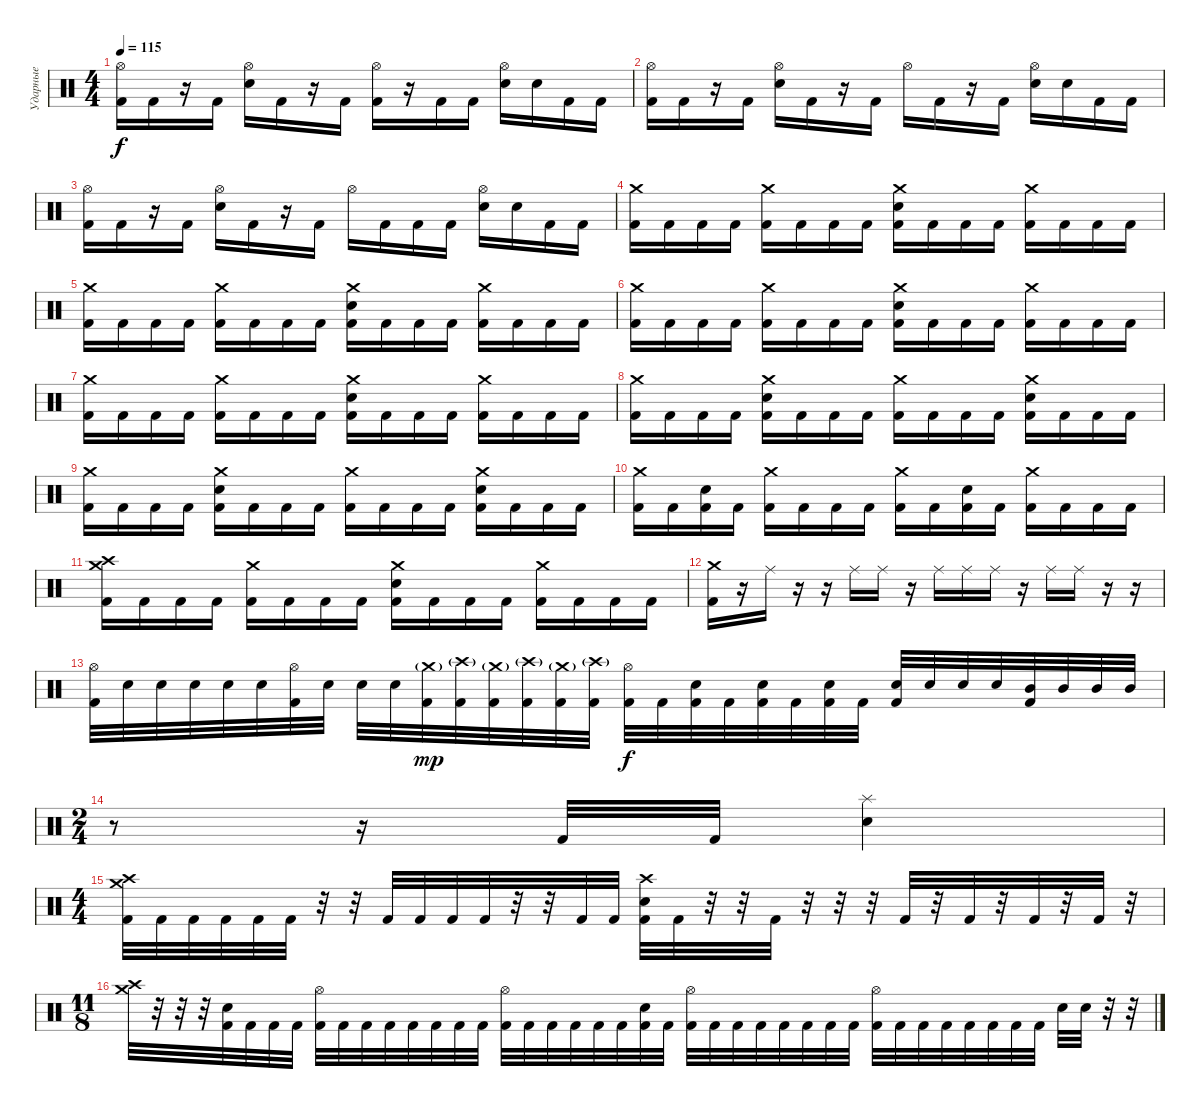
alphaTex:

\track ("Ударные" "Ударные") {instrument percussion}
\staff {score}
\articulation defaults
\ts (4 4)
\tempo 115
\clef neutral
\ks c
("Hi-Hat (open)" "Kick (hit) 2").16{dy f} "Kick (hit) 2".16 r.16 "Kick (hit) 2".16 ("Hi-Hat (open)" "Electric Snare (hit)").16 "Kick (hit) 2".16 r.16 "Kick (hit) 2".16 ("Hi-Hat (open)" "Kick (hit) 2").16 r.16 "Kick (hit) 2".16 "Kick (hit) 2".16 ("Hi-Hat (open)" "Electric Snare (hit)").16 "Electric Snare (hit)".16 "Kick (hit) 2".16 "Kick (hit) 2".16 |
("Hi-Hat (open)" "Kick (hit) 2").16 "Kick (hit) 2".16 r.16 "Kick (hit) 2".16 ("Hi-Hat (open)" "Electric Snare (hit)").16 "Kick (hit) 2".16 r.16 "Kick (hit) 2".16 "Hi-Hat (open)".16 "Kick (hit) 2".16 r.16 "Kick (hit) 2".16 ("Hi-Hat (open)" "Electric Snare (hit)").16 "Electric Snare (hit)".16 "Kick (hit) 2".16 "Kick (hit) 2".16 |
("Hi-Hat (open)" "Kick (hit) 2").16 "Kick (hit) 2".16 r.16 "Kick (hit) 2".16 ("Hi-Hat (open)" "Electric Snare (hit)").16 "Kick (hit) 2".16 r.16 "Kick (hit) 2".16 "Hi-Hat (open)".16 "Kick (hit) 2".16 "Kick (hit) 2".16 "Kick (hit) 2".16 ("Hi-Hat (open)" "Electric Snare (hit)").16 "Electric Snare (hit)".16 "Kick (hit) 2".16 "Kick (hit) 2".16 |
("Crash medium (hit)" "Kick (hit) 2").16 "Kick (hit) 2".16 "Kick (hit) 2".16 "Kick (hit) 2".16 ("Crash medium (hit)" "Kick (hit) 2").16 "Kick (hit) 2".16 "Kick (hit) 2".16 "Kick (hit) 2".16 ("Crash medium (hit)" "Electric Snare (hit)" "Kick (hit) 2").16 "Kick (hit) 2".16 "Kick (hit) 2".16 "Kick (hit) 2".16 ("Crash medium (hit)" "Kick (hit) 2").16 "Kick (hit) 2".16 "Kick (hit) 2".16 "Kick (hit) 2".16 |
("Crash medium (hit)" "Kick (hit) 2").16 "Kick (hit) 2".16 "Kick (hit) 2".16 "Kick (hit) 2".16 ("Crash medium (hit)" "Kick (hit) 2").16 "Kick (hit) 2".16 "Kick (hit) 2".16 "Kick (hit) 2".16 ("Crash medium (hit)" "Electric Snare (hit)" "Kick (hit) 2").16 "Kick (hit) 2".16 "Kick (hit) 2".16 "Kick (hit) 2".16 ("Crash medium (hit)" "Kick (hit) 2").16 "Kick (hit) 2".16 "Kick (hit) 2".16 "Kick (hit) 2".16 |
("Crash medium (hit)" "Kick (hit) 2").16 "Kick (hit) 2".16 "Kick (hit) 2".16 "Kick (hit) 2".16 ("Crash medium (hit)" "Kick (hit) 2").16 "Kick (hit) 2".16 "Kick (hit) 2".16 "Kick (hit) 2".16 ("Crash medium (hit)" "Electric Snare (hit)" "Kick (hit) 2").16 "Kick (hit) 2".16 "Kick (hit) 2".16 "Kick (hit) 2".16 ("Crash medium (hit)" "Kick (hit) 2").16 "Kick (hit) 2".16 "Kick (hit) 2".16 "Kick (hit) 2".16 |
("Crash medium (hit)" "Kick (hit) 2").16 "Kick (hit) 2".16 "Kick (hit) 2".16 "Kick (hit) 2".16 ("Crash medium (hit)" "Kick (hit) 2").16 "Kick (hit) 2".16 "Kick (hit) 2".16 "Kick (hit) 2".16 ("Crash medium (hit)" "Electric Snare (hit)" "Kick (hit) 2").16 "Kick (hit) 2".16 "Kick (hit) 2".16 "Kick (hit) 2".16 ("Crash medium (hit)" "Kick (hit) 2").16 "Kick (hit) 2".16 "Kick (hit) 2".16 "Kick (hit) 2".16 |
("Crash medium (hit)" "Kick (hit) 2").16 "Kick (hit) 2".16 "Kick (hit) 2".16 "Kick (hit) 2".16 ("Crash medium (hit)" "Electric Snare (hit)" "Kick (hit) 2").16 "Kick (hit) 2".16 "Kick (hit) 2".16 "Kick (hit) 2".16 ("Crash medium (hit)" "Kick (hit) 2").16 "Kick (hit) 2".16 "Kick (hit) 2".16 "Kick (hit) 2".16 ("Crash medium (hit)" "Electric Snare (hit)" "Kick (hit) 2").16 "Kick (hit) 2".16 "Kick (hit) 2".16 "Kick (hit) 2".16 |
("Crash medium (hit)" "Kick (hit) 2").16 "Kick (hit) 2".16 "Kick (hit) 2".16 "Kick (hit) 2".16 ("Crash medium (hit)" "Electric Snare (hit)" "Kick (hit) 2").16 "Kick (hit) 2".16 "Kick (hit) 2".16 "Kick (hit) 2".16 ("Crash medium (hit)" "Kick (hit) 2").16 "Kick (hit) 2".16 "Kick (hit) 2".16 "Kick (hit) 2".16 ("Crash medium (hit)" "Electric Snare (hit)" "Kick (hit) 2").16 "Kick (hit) 2".16 "Kick (hit) 2".16 "Kick (hit) 2".16 |
("Crash medium (hit)" "Kick (hit) 2").16 "Kick (hit) 2".16 ("Electric Snare (hit)" "Kick (hit) 2").16 "Kick (hit) 2".16 ("Crash medium (hit)" "Kick (hit) 2").16 "Kick (hit) 2".16 "Kick (hit) 2".16 "Kick (hit) 2".16 ("Crash medium (hit)" "Kick (hit) 2").16 "Kick (hit) 2".16 ("Electric Snare (hit)" "Kick (hit) 2").16 "Kick (hit) 2".16 ("Crash medium (hit)" "Kick (hit) 2").16 "Kick (hit) 2".16 "Kick (hit) 2".16 "Kick (hit) 2".16 |
("Crash medium (hit)" "Crash high (hit)" "Kick (hit) 2").16 "Kick (hit) 2".16 "Kick (hit) 2".16 "Kick (hit) 2".16 ("Crash medium (hit)" "Kick (hit) 2").16 "Kick (hit) 2".16 "Kick (hit) 2".16 "Kick (hit) 2".16 ("Crash medium (hit)" "Electric Snare (hit)" "Kick (hit) 2").16 "Kick (hit) 2".16 "Kick (hit) 2".16 "Kick (hit) 2".16 ("Crash medium (hit)" "Kick (hit) 2").16 "Kick (hit) 2".16 "Kick (hit) 2".16 "Kick (hit) 2".16 |
("Crash medium (hit)" "Kick (hit) 2").16 r.16 "Ride (middle)".16 r.16 r.16 "Ride (middle)".16 "Ride (middle)".16 r.16 "Ride (middle)".16 "Ride (middle)".16 "Ride (middle)".16 r.16 "Ride (middle)".16 "Ride (middle)".16 r.16 r.16 |
("Hi-Hat (open)" "Kick (hit) 2").32 "Electric Snare (hit)".32 "Electric Snare (hit)".32 "Electric Snare (hit)".32 "Electric Snare (hit)".32 "Electric Snare (hit)".32 ("Hi-Hat (open)" "Kick (hit) 2").32 "Electric Snare (hit)".32 "Electric Snare (hit)".32 "Electric Snare (hit)".32 ("Crash medium (hit)"{g} "Kick (hit) 2").32{dy mp} ("Crash high (hit)"{g} "Kick (hit) 2").32 ("Crash medium (hit)"{g} "Kick (hit) 2").32 ("Crash high (hit)"{g} "Kick (hit) 2").32 ("Crash medium (hit)"{g} "Kick (hit) 2").32 ("Crash high (hit)"{g} "Kick (hit) 2").32 ("Hi-Hat (open)" "Kick (hit) 2").32{dy f} "Kick (hit) 2".32 ("Electric Snare (hit)" "Kick (hit) 2").32 "Kick (hit) 2".32 ("Electric Snare (hit)" "Kick (hit) 2").32 "Kick (hit) 2".32 ("Electric Snare (hit)" "Kick (hit) 2").32 "Kick (hit) 2".32 ("Electric Snare (hit)" "Kick (hit) 2").32 "Electric Snare (hit)".32 "Electric Snare (hit)".32 "Electric Snare (hit)".32 ("Mid Tom (hit)" "Kick (hit) 2").32 "Mid Tom (hit)".32 "Mid Tom (hit)".32 "Mid Tom (hit)".32 |
\ts (2 4)
r.8 r.16 "Kick (hit) 2".32 "Kick (hit) 2".32 ("Splash (hit)" "Electric Snare (hit)").4 |
\ts (4 4)
("Crash high (hit)" "Crash medium (hit)" "Kick (hit) 2").32 "Kick (hit) 2".32 "Kick (hit) 2".32 "Kick (hit) 2".32 "Kick (hit) 2".32 "Kick (hit) 2".32 r.32 r.32 "Kick (hit) 2".32 "Kick (hit) 2".32 "Kick (hit) 2".32 "Kick (hit) 2".32 r.32 r.32 "Kick (hit) 2".32 "Kick (hit) 2".32 ("Crash high (hit)" "Electric Snare (hit)" "Kick (hit) 2").32 "Kick (hit) 2".32 r.32 r.32 "Kick (hit) 2".32 r.32 r.32 r.32 "Kick (hit) 2".32 r.32 "Kick (hit) 2".32 r.32 "Kick (hit) 2".32 r.32 "Kick (hit) 2".32 r.32 |
\ts (11 8)
("Crash medium (hit)" "Crash high (hit)").32 r.32 r.32 r.32 ("Electric Snare (hit)" "Kick (hit) 2").32 "Kick (hit) 2".32 "Kick (hit) 2".32 "Kick (hit) 2".32 ("Hi-Hat (open)" "Kick (hit) 2").32 "Kick (hit) 2".32 "Kick (hit) 2".32 "Kick (hit) 2".32 "Kick (hit) 2".32 "Kick (hit) 2".32 "Kick (hit) 2".32 "Kick (hit) 2".32 ("Hi-Hat (open)" "Kick (hit) 2").32 "Kick (hit) 2".32 "Kick (hit) 2".32 "Kick (hit) 2".32 "Kick (hit) 2".32 "Kick (hit) 2".32 ("Electric Snare (hit)" "Kick (hit) 2").32 "Kick (hit) 2".32 ("Hi-Hat (open)" "Kick (hit) 2").32 "Kick (hit) 2".32 "Kick (hit) 2".32 "Kick (hit) 2".32 "Kick (hit) 2".32 "Kick (hit) 2".32 "Kick (hit) 2".32 "Kick (hit) 2".32 ("Hi-Hat (open)" "Kick (hit) 2").32 "Kick (hit) 2".32 "Kick (hit) 2".32 "Kick (hit) 2".32 "Kick (hit) 2".32 "Kick (hit) 2".32 "Kick (hit) 2".32 "Kick (hit) 2".32 "Electric Snare (hit)".32 "Electric Snare (hit)".32 r.32 r.32
